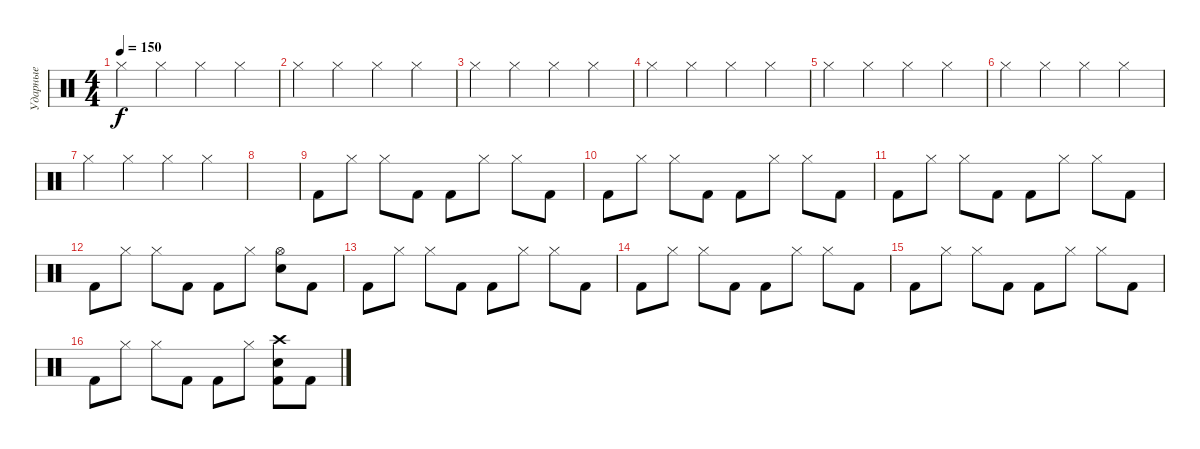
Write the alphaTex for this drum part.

\track ("Ударные" "Ударные") {instrument percussion}
\staff {score}
\articulation defaults
\ts (4 4)
\tempo 150
\clef neutral
\ks c "Hi-Hat (closed)".4{dy f} "Hi-Hat (closed)".4 "Hi-Hat (closed)".4 "Hi-Hat (closed)".4
|
"Hi-Hat (closed)".4 "Hi-Hat (closed)".4 "Hi-Hat (closed)".4 "Hi-Hat (closed)".4 |
"Hi-Hat (closed)".4 "Hi-Hat (closed)".4 "Hi-Hat (closed)".4 "Hi-Hat (closed)".4 |
"Hi-Hat (closed)".4 "Hi-Hat (closed)".4 "Hi-Hat (closed)".4 "Hi-Hat (closed)".4 |
"Hi-Hat (closed)".4 "Hi-Hat (closed)".4 "Hi-Hat (closed)".4 "Hi-Hat (closed)".4 |
"Hi-Hat (closed)".4 "Hi-Hat (closed)".4 "Hi-Hat (closed)".4 "Hi-Hat (closed)".4 |
"Hi-Hat (closed)".4 "Hi-Hat (closed)".4 "Hi-Hat (closed)".4 "Hi-Hat (closed)".4 |
|
"Kick (hit) 2".8 "Hi-Hat (closed)".8 "Hi-Hat (closed)".8 "Kick (hit) 2".8 "Kick (hit) 2".8 "Hi-Hat (closed)".8 "Hi-Hat (closed)".8 "Kick (hit) 2".8 |
"Kick (hit) 2".8 "Hi-Hat (closed)".8 "Hi-Hat (closed)".8 "Kick (hit) 2".8 "Kick (hit) 2".8 "Hi-Hat (closed)".8 "Hi-Hat (closed)".8 "Kick (hit) 2".8 |
"Kick (hit) 2".8 "Hi-Hat (closed)".8 "Hi-Hat (closed)".8 "Kick (hit) 2".8 "Kick (hit) 2".8 "Hi-Hat (closed)".8 "Hi-Hat (closed)".8 "Kick (hit) 2".8 |
"Kick (hit) 2".8 "Hi-Hat (closed)".8 "Hi-Hat (closed)".8 "Kick (hit) 2".8 "Kick (hit) 2".8 "Hi-Hat (closed)".8 ("Hi-Hat (open)" "Snare (hit) 2").8 "Kick (hit) 2".8 |
"Kick (hit) 2".8 "Hi-Hat (closed)".8 "Hi-Hat (closed)".8 "Kick (hit) 2".8 "Kick (hit) 2".8 "Hi-Hat (closed)".8 "Hi-Hat (closed)".8 "Kick (hit) 2".8 |
"Kick (hit) 2".8 "Hi-Hat (closed)".8 "Hi-Hat (closed)".8 "Kick (hit) 2".8 "Kick (hit) 2".8 "Hi-Hat (closed)".8 "Hi-Hat (closed)".8 "Kick (hit) 2".8 |
"Kick (hit) 2".8 "Hi-Hat (closed)".8 "Hi-Hat (closed)".8 "Kick (hit) 2".8 "Kick (hit) 2".8 "Hi-Hat (closed)".8 "Hi-Hat (closed)".8 "Kick (hit) 2".8 |
"Kick (hit) 2".8 "Hi-Hat (closed)".8 "Hi-Hat (closed)".8 "Kick (hit) 2".8 "Kick (hit) 2".8 "Hi-Hat (closed)".8 ("Kick (hit) 2" "Snare (hit) 2" "Crash high (hit)").8 "Kick (hit) 2".8
